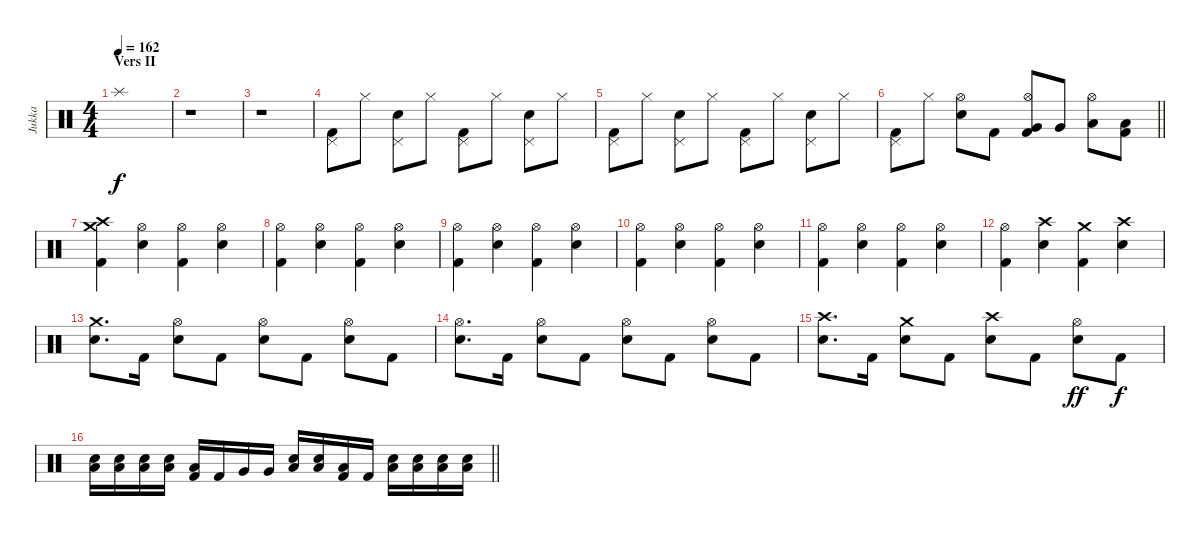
\track ("Jukka" "Jukka") {instrument percussion}
\staff {score}
\articulation defaults
\ts (4 4)
\section ("" "Vers II")
\tempo 162
\clef neutral
\ks c "Splash (hit)".1{dy f}
|
r.1 |
r.1 |
("Pedal Hi-Hat (hit)" "Kick (hit) 2").8 "Hi-Hat (closed)".8 ("Pedal Hi-Hat (hit)" "Electric Snare (hit)").8 "Hi-Hat (closed)".8 ("Pedal Hi-Hat (hit)" "Kick (hit) 2").8 "Hi-Hat (closed)".8 ("Pedal Hi-Hat (hit)" "Electric Snare (hit)").8 "Hi-Hat (closed)".8 |
("Pedal Hi-Hat (hit)" "Kick (hit) 2").8 "Hi-Hat (closed)".8 ("Pedal Hi-Hat (hit)" "Electric Snare (hit)").8 "Hi-Hat (closed)".8 ("Pedal Hi-Hat (hit)" "Kick (hit) 2").8 "Hi-Hat (closed)".8 ("Pedal Hi-Hat (hit)" "Electric Snare (hit)").8 "Hi-Hat (closed)".8 |
\barLineRight lightlight
("Pedal Hi-Hat (hit)" "Kick (hit) 2").8 "Hi-Hat (closed)".8 ("Hi-Hat (open)" "Electric Snare (hit)").8 "Kick (hit) 2".8 ("Hi-Hat (open)" "Very Low Tom (hit)" "Kick (hit) 2").8 "Very Low Tom (hit)".8 ("Hi-Hat (open)" "Low Floor Tom (hit)").8 ("Low Floor Tom (hit)" "Kick (hit) 2").8 |
("Crash medium (hit)" "Crash high (hit)" "Kick (hit) 2").4 ("Hi-Hat (open)" "Electric Snare (hit)").4 ("Hi-Hat (open)" "Kick (hit) 2").4 ("Hi-Hat (open)" "Electric Snare (hit)").4 |
("Hi-Hat (open)" "Kick (hit) 2").4 ("Hi-Hat (open)" "Electric Snare (hit)").4 ("Hi-Hat (open)" "Kick (hit) 2").4 ("Hi-Hat (open)" "Electric Snare (hit)").4 |
("Hi-Hat (open)" "Kick (hit) 2").4 ("Hi-Hat (open)" "Electric Snare (hit)").4 ("Hi-Hat (open)" "Kick (hit) 2").4 ("Hi-Hat (open)" "Electric Snare (hit)").4 |
("Hi-Hat (open)" "Kick (hit) 2").4 ("Hi-Hat (open)" "Electric Snare (hit)").4 ("Hi-Hat (open)" "Kick (hit) 2").4 ("Hi-Hat (open)" "Electric Snare (hit)").4 |
("Hi-Hat (open)" "Kick (hit) 2").4 ("Hi-Hat (open)" "Electric Snare (hit)").4 ("Hi-Hat (open)" "Kick (hit) 2").4 ("Hi-Hat (open)" "Electric Snare (hit)").4 |
("Hi-Hat (open)" "Kick (hit) 2").4 ("Crash high (hit)" "Electric Snare (hit)").4 ("Crash medium (hit)" "Kick (hit) 2").4 ("Crash high (hit)" "Electric Snare (hit)").4 |
("Crash medium (hit)" "Electric Snare (hit)").8{d} "Kick (hit) 2".16 ("Hi-Hat (open)" "Electric Snare (hit)").8 "Kick (hit) 2".8 ("Hi-Hat (open)" "Electric Snare (hit)").8 "Kick (hit) 2".8 ("Hi-Hat (open)" "Electric Snare (hit)").8 "Kick (hit) 2".8 |
("Hi-Hat (open)" "Electric Snare (hit)").8{d} "Kick (hit) 2".16 ("Hi-Hat (open)" "Electric Snare (hit)").8 "Kick (hit) 2".8 ("Hi-Hat (open)" "Electric Snare (hit)").8 "Kick (hit) 2".8 ("Hi-Hat (open)" "Electric Snare (hit)").8 "Kick (hit) 2".8 |
("Crash high (hit)" "Electric Snare (hit)").8{d} "Kick (hit) 2".16 ("Crash medium (hit)" "Electric Snare (hit)").8 "Kick (hit) 2".8 ("Crash high (hit)" "Electric Snare (hit)").8 "Kick (hit) 2".8 ("Hi-Hat (open)" "Electric Snare (hit)").8{dy ff} "Kick (hit) 2".8{dy f} |
\barLineRight lightlight
("Low Floor Tom (hit)" "Electric Snare (hit)").16 ("Low Floor Tom (hit)" "Electric Snare (hit)").16 ("Low Floor Tom (hit)" "Electric Snare (hit)").16 ("Low Floor Tom (hit)" "Electric Snare (hit)").16 ("Low Floor Tom (hit)" "Kick (hit) 2").16 "Kick (hit) 2".16 "Very Low Tom (hit)".16 "Very Low Tom (hit)".16 ("Low Floor Tom (hit)" "Electric Snare (hit)").16 ("Low Floor Tom (hit)" "Electric Snare (hit)").16 ("Low Floor Tom (hit)" "Kick (hit) 2").16 "Kick (hit) 2".16 ("Low Floor Tom (hit)" "Electric Snare (hit)").16 ("Low Floor Tom (hit)" "Electric Snare (hit)").16 ("Low Floor Tom (hit)" "Electric Snare (hit)").16 ("Low Floor Tom (hit)" "Electric Snare (hit)").16
